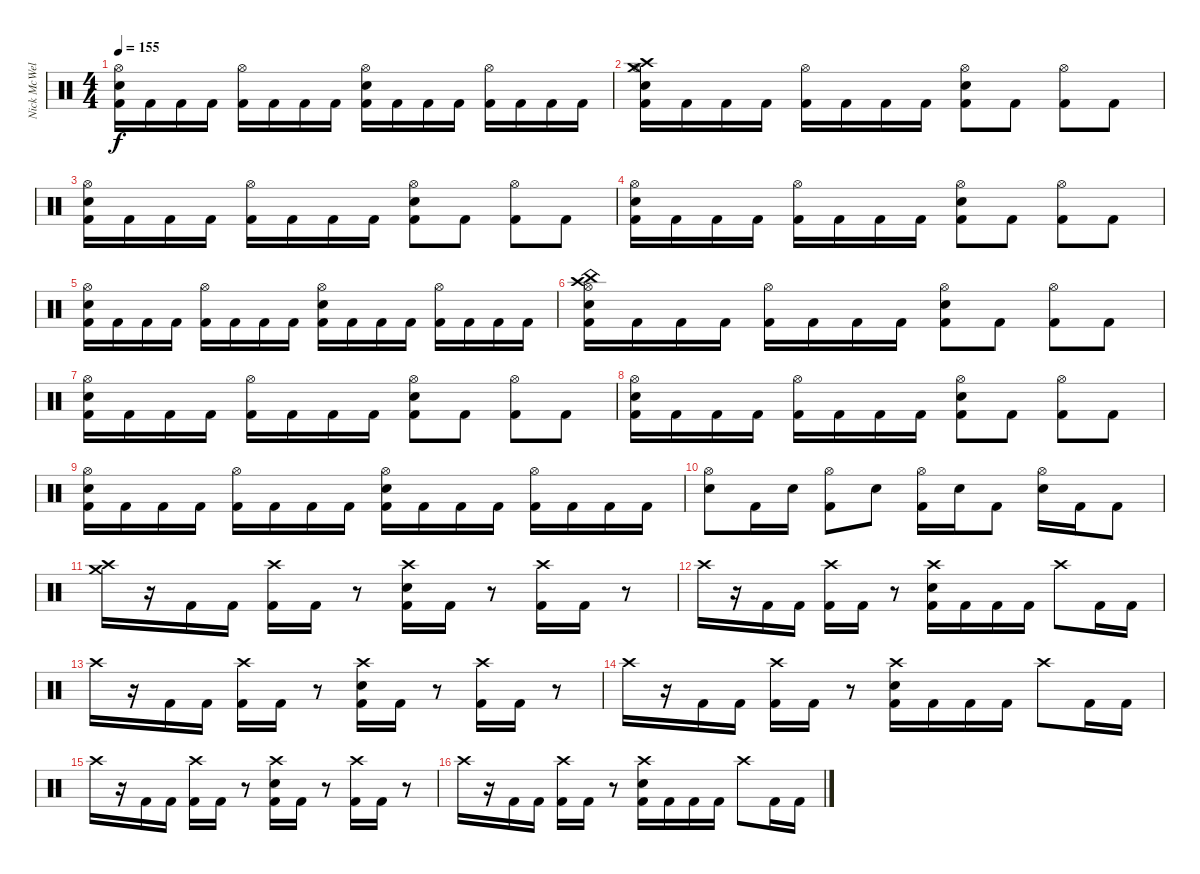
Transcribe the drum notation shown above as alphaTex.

\track ("Nick McWells" "Nick McWel") {instrument percussion}
\staff {score}
\articulation defaults
\ts (4 4)
\tempo 155
\clef neutral
\ks c
("Hi-Hat (open)" "Electric Snare (hit)" "Kick (hit) 2").16{dy f} "Kick (hit) 2".16 "Kick (hit) 2".16 "Kick (hit) 2".16 ("Hi-Hat (open)" "Kick (hit) 2").16 "Kick (hit) 2".16 "Kick (hit) 2".16 "Kick (hit) 2".16 ("Hi-Hat (open)" "Electric Snare (hit)" "Kick (hit) 2").16 "Kick (hit) 2".16 "Kick (hit) 2".16 "Kick (hit) 2".16 ("Hi-Hat (open)" "Kick (hit) 2").16 "Kick (hit) 2".16 "Kick (hit) 2".16 "Kick (hit) 2".16 |
("Crash medium (hit)" "Electric Snare (hit)" "Crash high (hit)" "Hi-Hat (open)" "Kick (hit) 2").16 "Kick (hit) 2".16 "Kick (hit) 2".16 "Kick (hit) 2".16 ("Hi-Hat (open)" "Kick (hit) 2").16 "Kick (hit) 2".16 "Kick (hit) 2".16 "Kick (hit) 2".16 ("Electric Snare (hit)" "Hi-Hat (open)" "Kick (hit) 2").8 "Kick (hit) 2".8 ("Hi-Hat (open)" "Kick (hit) 2").8 "Kick (hit) 2".8 |
("Electric Snare (hit)" "Hi-Hat (open)" "Kick (hit) 2").16 "Kick (hit) 2".16 "Kick (hit) 2".16 "Kick (hit) 2".16 ("Hi-Hat (open)" "Kick (hit) 2").16 "Kick (hit) 2".16 "Kick (hit) 2".16 "Kick (hit) 2".16 ("Electric Snare (hit)" "Hi-Hat (open)" "Kick (hit) 2").8 "Kick (hit) 2".8 ("Hi-Hat (open)" "Kick (hit) 2").8 "Kick (hit) 2".8 |
("Electric Snare (hit)" "Hi-Hat (open)" "Kick (hit) 2").16 "Kick (hit) 2".16 "Kick (hit) 2".16 "Kick (hit) 2".16 ("Hi-Hat (open)" "Kick (hit) 2").16 "Kick (hit) 2".16 "Kick (hit) 2".16 "Kick (hit) 2".16 ("Electric Snare (hit)" "Hi-Hat (open)" "Kick (hit) 2").8 "Kick (hit) 2".8 ("Hi-Hat (open)" "Kick (hit) 2").8 "Kick (hit) 2".8 |
("Electric Snare (hit)" "Hi-Hat (open)" "Kick (hit) 2").16 "Kick (hit) 2".16 "Kick (hit) 2".16 "Kick (hit) 2".16 ("Hi-Hat (open)" "Kick (hit) 2").16 "Kick (hit) 2".16 "Kick (hit) 2".16 "Kick (hit) 2".16 ("Hi-Hat (open)" "Electric Snare (hit)" "Kick (hit) 2").16 "Kick (hit) 2".16 "Kick (hit) 2".16 "Kick (hit) 2".16 ("Hi-Hat (open)" "Kick (hit) 2").16 "Kick (hit) 2".16 "Kick (hit) 2".16 "Kick (hit) 2".16 |
("China (hit)" "Electric Snare (hit)" "Crash high (hit)" "Hi-Hat (open)" "Kick (hit) 2").16 "Kick (hit) 2".16 "Kick (hit) 2".16 "Kick (hit) 2".16 ("Hi-Hat (open)" "Kick (hit) 2").16 "Kick (hit) 2".16 "Kick (hit) 2".16 "Kick (hit) 2".16 ("Electric Snare (hit)" "Hi-Hat (open)" "Kick (hit) 2").8 "Kick (hit) 2".8 ("Hi-Hat (open)" "Kick (hit) 2").8 "Kick (hit) 2".8 |
("Electric Snare (hit)" "Hi-Hat (open)" "Kick (hit) 2").16 "Kick (hit) 2".16 "Kick (hit) 2".16 "Kick (hit) 2".16 ("Hi-Hat (open)" "Kick (hit) 2").16 "Kick (hit) 2".16 "Kick (hit) 2".16 "Kick (hit) 2".16 ("Electric Snare (hit)" "Hi-Hat (open)" "Kick (hit) 2").8 "Kick (hit) 2".8 ("Hi-Hat (open)" "Kick (hit) 2").8 "Kick (hit) 2".8 |
("Electric Snare (hit)" "Hi-Hat (open)" "Kick (hit) 2").16 "Kick (hit) 2".16 "Kick (hit) 2".16 "Kick (hit) 2".16 ("Hi-Hat (open)" "Kick (hit) 2").16 "Kick (hit) 2".16 "Kick (hit) 2".16 "Kick (hit) 2".16 ("Electric Snare (hit)" "Hi-Hat (open)" "Kick (hit) 2").8 "Kick (hit) 2".8 ("Hi-Hat (open)" "Kick (hit) 2").8 "Kick (hit) 2".8 |
("Electric Snare (hit)" "Hi-Hat (open)" "Kick (hit) 2").16 "Kick (hit) 2".16 "Kick (hit) 2".16 "Kick (hit) 2".16 ("Hi-Hat (open)" "Kick (hit) 2").16 "Kick (hit) 2".16 "Kick (hit) 2".16 "Kick (hit) 2".16 ("Hi-Hat (open)" "Electric Snare (hit)" "Kick (hit) 2").16 "Kick (hit) 2".16 "Kick (hit) 2".16 "Kick (hit) 2".16 ("Hi-Hat (open)" "Kick (hit) 2").16 "Kick (hit) 2".16 "Kick (hit) 2".16 "Kick (hit) 2".16 |
("Hi-Hat (open)" "Electric Snare (hit)").8 "Kick (hit) 2".16 "Electric Snare (hit)".16 ("Hi-Hat (open)" "Kick (hit) 2").8 "Electric Snare (hit)".8 ("Hi-Hat (open)" "Kick (hit) 2").16 "Electric Snare (hit)".16 "Kick (hit) 2".8 ("Hi-Hat (open)" "Electric Snare (hit)").16 "Kick (hit) 2".16 "Kick (hit) 2".8 |
("Crash medium (hit)" "Crash high (hit)").16 r.16 "Kick (hit) 2".16 "Kick (hit) 2".16 ("Crash high (hit)" "Kick (hit) 2").16 "Kick (hit) 2".16 r.8 ("Crash high (hit)" "Electric Snare (hit)" "Kick (hit) 2").16 "Kick (hit) 2".16 r.8 ("Crash high (hit)" "Kick (hit) 2").16 "Kick (hit) 2".16 r.8 |
"Crash high (hit)".16 r.16 "Kick (hit) 2".16 "Kick (hit) 2".16 ("Crash high (hit)" "Kick (hit) 2").16 "Kick (hit) 2".16 r.8 ("Crash high (hit)" "Electric Snare (hit)" "Kick (hit) 2").16 "Kick (hit) 2".16 "Kick (hit) 2".16 "Kick (hit) 2".16 "Crash high (hit)".8 "Kick (hit) 2".16 "Kick (hit) 2".16 |
"Crash high (hit)".16 r.16 "Kick (hit) 2".16 "Kick (hit) 2".16 ("Crash high (hit)" "Kick (hit) 2").16 "Kick (hit) 2".16 r.8 ("Crash high (hit)" "Electric Snare (hit)" "Kick (hit) 2").16 "Kick (hit) 2".16 r.8 ("Crash high (hit)" "Kick (hit) 2").16 "Kick (hit) 2".16 r.8 |
"Crash high (hit)".16 r.16 "Kick (hit) 2".16 "Kick (hit) 2".16 ("Crash high (hit)" "Kick (hit) 2").16 "Kick (hit) 2".16 r.8 ("Crash high (hit)" "Electric Snare (hit)" "Kick (hit) 2").16 "Kick (hit) 2".16 "Kick (hit) 2".16 "Kick (hit) 2".16 "Crash high (hit)".8 "Kick (hit) 2".16 "Kick (hit) 2".16 |
"Crash high (hit)".16 r.16 "Kick (hit) 2".16 "Kick (hit) 2".16 ("Crash high (hit)" "Kick (hit) 2").16 "Kick (hit) 2".16 r.8 ("Crash high (hit)" "Electric Snare (hit)" "Kick (hit) 2").16 "Kick (hit) 2".16 r.8 ("Crash high (hit)" "Kick (hit) 2").16 "Kick (hit) 2".16 r.8 |
"Crash high (hit)".16 r.16 "Kick (hit) 2".16 "Kick (hit) 2".16 ("Crash high (hit)" "Kick (hit) 2").16 "Kick (hit) 2".16 r.8 ("Crash high (hit)" "Electric Snare (hit)" "Kick (hit) 2").16 "Kick (hit) 2".16 "Kick (hit) 2".16 "Kick (hit) 2".16 "Crash high (hit)".8 "Kick (hit) 2".16 "Kick (hit) 2".16
